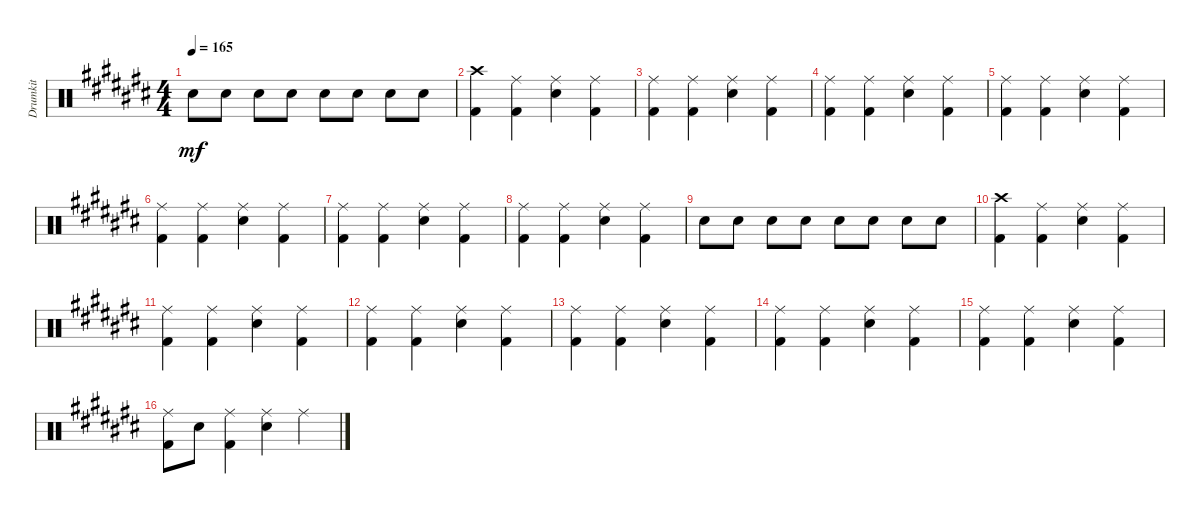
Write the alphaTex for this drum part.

\track ("Drumkit" "Drumkit") {instrument percussion}
\staff {score}
\articulation defaults
\ts (4 4)
\tempo 165
\clef neutral
\ks c# "Snare (hit) 2".8{dy mf} "Snare (hit) 2".8 "Snare (hit) 2".8 "Snare (hit) 2".8 "Snare (hit) 2".8 "Snare (hit) 2".8 "Snare (hit) 2".8 "Snare (hit) 2".8
|
("Kick (hit) 2" "Crash high (hit)").4 ("Kick (hit) 2" "Ride (middle)").4 ("Snare (hit) 2" "Ride (middle)").4 ("Kick (hit) 2" "Ride (middle)").4 |
("Kick (hit) 2" "Ride (middle)").4 ("Kick (hit) 2" "Ride (middle)").4 ("Snare (hit) 2" "Ride (middle)").4 ("Kick (hit) 2" "Ride (middle)").4 |
("Kick (hit) 2" "Ride (middle)").4 ("Kick (hit) 2" "Ride (middle)").4 ("Snare (hit) 2" "Ride (middle)").4 ("Kick (hit) 2" "Ride (middle)").4 |
("Kick (hit) 2" "Ride (middle)").4 ("Kick (hit) 2" "Ride (middle)").4 ("Snare (hit) 2" "Ride (middle)").4 ("Kick (hit) 2" "Ride (middle)").4 |
("Kick (hit) 2" "Ride (middle)").4 ("Kick (hit) 2" "Ride (middle)").4 ("Snare (hit) 2" "Ride (middle)").4 ("Kick (hit) 2" "Ride (middle)").4 |
("Kick (hit) 2" "Ride (middle)").4 ("Kick (hit) 2" "Ride (middle)").4 ("Snare (hit) 2" "Ride (middle)").4 ("Kick (hit) 2" "Ride (middle)").4 |
("Kick (hit) 2" "Ride (middle)").4 ("Kick (hit) 2" "Ride (middle)").4 ("Snare (hit) 2" "Ride (middle)").4 ("Kick (hit) 2" "Ride (middle)").4 |
"Snare (hit) 2".8 "Snare (hit) 2".8 "Snare (hit) 2".8 "Snare (hit) 2".8 "Snare (hit) 2".8 "Snare (hit) 2".8 "Snare (hit) 2".8 "Snare (hit) 2".8 |
("Kick (hit) 2" "Crash high (hit)").4 ("Kick (hit) 2" "Ride (middle)").4 ("Snare (hit) 2" "Ride (middle)").4 ("Kick (hit) 2" "Ride (middle)").4 |
("Kick (hit) 2" "Ride (middle)").4 ("Kick (hit) 2" "Ride (middle)").4 ("Snare (hit) 2" "Ride (middle)").4 ("Kick (hit) 2" "Ride (middle)").4 |
("Kick (hit) 2" "Ride (middle)").4 ("Kick (hit) 2" "Ride (middle)").4 ("Snare (hit) 2" "Ride (middle)").4 ("Kick (hit) 2" "Ride (middle)").4 |
("Kick (hit) 2" "Ride (middle)").4 ("Kick (hit) 2" "Ride (middle)").4 ("Snare (hit) 2" "Ride (middle)").4 ("Kick (hit) 2" "Ride (middle)").4 |
("Kick (hit) 2" "Ride (middle)").4 ("Kick (hit) 2" "Ride (middle)").4 ("Snare (hit) 2" "Ride (middle)").4 ("Kick (hit) 2" "Ride (middle)").4 |
("Kick (hit) 2" "Ride (middle)").4 ("Kick (hit) 2" "Ride (middle)").4 ("Snare (hit) 2" "Ride (middle)").4 ("Kick (hit) 2" "Ride (middle)").4 |
("Kick (hit) 2" "Ride (middle)").8 "Snare (hit) 2".8 ("Kick (hit) 2" "Ride (middle)").4 ("Snare (hit) 2" "Ride (middle)").4 "Ride (middle)".4
